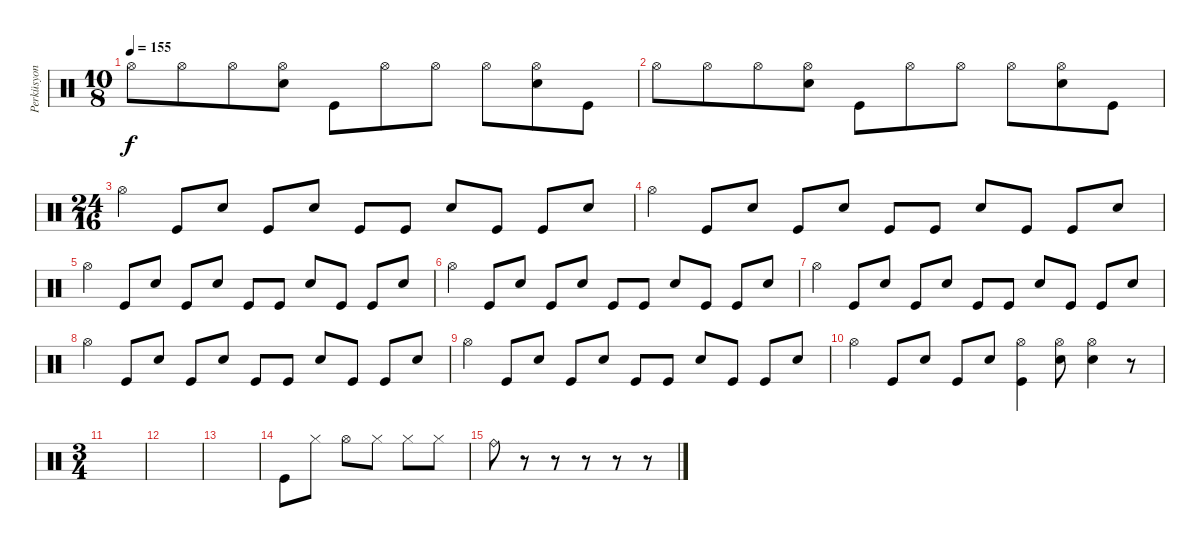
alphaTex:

\track ("Perküsyon" "Perküsyon") {instrument percussion}
\staff {score}
\articulation defaults
\ts (10 8)
\tempo 155
\clef neutral
\ks c "Hi-Hat (open)".8{dy f} "Hi-Hat (open)".8 "Hi-Hat (open)".8
("Hi-Hat (open)" "Electric Snare (hit)").8 "Kick (hit)".8 "Hi-Hat (open)".8 "Hi-Hat (open)".8 "Hi-Hat (open)".8 ("Hi-Hat (open)" "Electric Snare (hit)").8 "Kick (hit)".8 |
"Hi-Hat (open)".8 "Hi-Hat (open)".8 "Hi-Hat (open)".8 ("Hi-Hat (open)" "Electric Snare (hit)").8 "Kick (hit)".8 "Hi-Hat (open)".8 "Hi-Hat (open)".8 "Hi-Hat (open)".8 ("Hi-Hat (open)" "Electric Snare (hit)").8 "Kick (hit)".8 |
\ts (24 16)
"Hi-Hat (open)".4 "Kick (hit)".8 "Electric Snare (hit)".8 "Kick (hit)".8 "Electric Snare (hit)".8 "Kick (hit)".8 "Kick (hit)".8 "Electric Snare (hit)".8 "Kick (hit)".8 "Kick (hit)".8 "Electric Snare (hit)".8 |
"Hi-Hat (open)".4 "Kick (hit)".8 "Electric Snare (hit)".8 "Kick (hit)".8 "Electric Snare (hit)".8 "Kick (hit)".8 "Kick (hit)".8 "Electric Snare (hit)".8 "Kick (hit)".8 "Kick (hit)".8 "Electric Snare (hit)".8 |
"Hi-Hat (open)".4 "Kick (hit)".8 "Electric Snare (hit)".8 "Kick (hit)".8 "Electric Snare (hit)".8 "Kick (hit)".8 "Kick (hit)".8 "Electric Snare (hit)".8 "Kick (hit)".8 "Kick (hit)".8 "Electric Snare (hit)".8 |
"Hi-Hat (open)".4 "Kick (hit)".8 "Electric Snare (hit)".8 "Kick (hit)".8 "Electric Snare (hit)".8 "Kick (hit)".8 "Kick (hit)".8 "Electric Snare (hit)".8 "Kick (hit)".8 "Kick (hit)".8 "Electric Snare (hit)".8 |
"Hi-Hat (open)".4 "Kick (hit)".8 "Electric Snare (hit)".8 "Kick (hit)".8 "Electric Snare (hit)".8 "Kick (hit)".8 "Kick (hit)".8 "Electric Snare (hit)".8 "Kick (hit)".8 "Kick (hit)".8 "Electric Snare (hit)".8 |
"Hi-Hat (open)".4 "Kick (hit)".8 "Electric Snare (hit)".8 "Kick (hit)".8 "Electric Snare (hit)".8 "Kick (hit)".8 "Kick (hit)".8 "Electric Snare (hit)".8 "Kick (hit)".8 "Kick (hit)".8 "Electric Snare (hit)".8 |
"Hi-Hat (open)".4 "Kick (hit)".8 "Electric Snare (hit)".8 "Kick (hit)".8 "Electric Snare (hit)".8 "Kick (hit)".8 "Kick (hit)".8 "Electric Snare (hit)".8 "Kick (hit)".8 "Kick (hit)".8 "Electric Snare (hit)".8 |
"Hi-Hat (open)".4 "Kick (hit)".8 "Electric Snare (hit)".8 "Kick (hit)".8 "Electric Snare (hit)".8 ("Hi-Hat (open)" "Kick (hit)").4 ("Hi-Hat (open)" "Electric Snare (hit)").8 ("Hi-Hat (open)" "Electric Snare (hit)").4 r.8 |
\ts (3 4)
|
|
|
"Kick (hit)".8 "Hi-Hat (closed)".8 "Hi-Hat (open)".8 "Hi-Hat (closed)".8 "Hi-Hat (closed)".8 "Hi-Hat (closed)".8 |
"Ride (bell)".8 r.8 r.8 r.8 r.8 r.8
